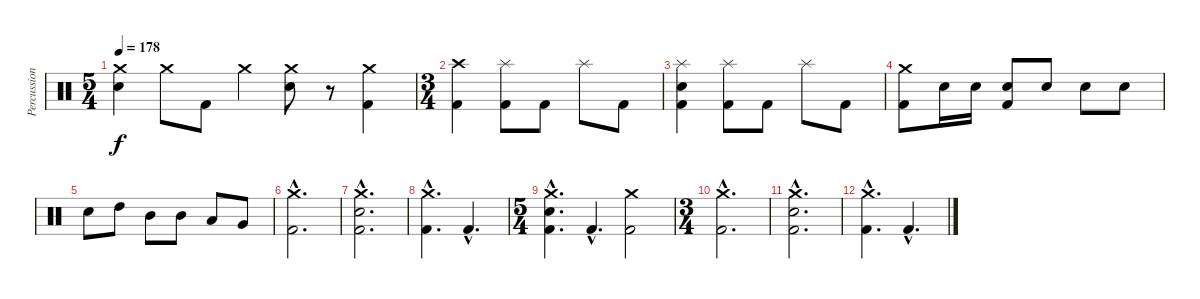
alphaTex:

\track ("Percussion" "Percussion") {instrument percussion}
\staff {score}
\articulation defaults
\ts (5 4)
\tempo 178
\clef neutral
\ks c
("Crash medium (hit)" "Electric Snare (hit)").4{dy f} "Crash medium (hit)".8 "Kick (hit) 2".8 "Crash medium (hit)".4 ("Crash medium (hit)" "Electric Snare (hit)").8 r.8 ("Crash medium (hit)" "Kick (hit) 2").4 |
\ts (3 4)
("Crash high (hit)" "Kick (hit) 2").4 ("Splash (hit)" "Kick (hit) 2").8 "Kick (hit) 2".8 "Splash (hit)".8 "Kick (hit) 2".8 |
("Splash (hit)" "Electric Snare (hit)" "Kick (hit) 2").4 ("Splash (hit)" "Kick (hit) 2").8 "Kick (hit) 2".8 "Splash (hit)".8 "Kick (hit) 2".8 |
("Crash medium (hit)" "Kick (hit) 2").8 "Electric Snare (hit)".16 "Electric Snare (hit)".16 ("Electric Snare (hit)" "Kick (hit) 2").8 "Electric Snare (hit)".8 "Electric Snare (hit)".8 "Electric Snare (hit)".8 |
"Electric Snare (hit)".8 "High Tom (hit)".8 "Mid Tom (hit)".8 "Mid Tom (hit)".8 "Low Tom (hit)".8 "Very Low Tom (hit)".8 |
("Crash medium (hit)"{hac} "Kick (hit) 2"{hac}).2{d} |
("Crash medium (hit)"{hac} "Electric Snare (hit)"{hac} "Kick (hit) 2"{hac}).2{d} |
("Crash medium (hit)"{hac} "Kick (hit) 2"{hac}).4{d} "Kick (hit) 2"{hac}.4{d} |
\ts (5 4)
("Crash medium (hit)"{hac} "Electric Snare (hit)"{hac} "Kick (hit) 2"{hac}).4{d} "Kick (hit) 2"{hac}.4{d} ("Crash medium (hit)" "Kick (hit) 2").2 |
\ts (3 4)
("Crash medium (hit)"{hac} "Kick (hit) 2"{hac}).2{d} |
("Crash medium (hit)"{hac} "Electric Snare (hit)"{hac} "Kick (hit) 2"{hac}).2{d} |
("Crash medium (hit)"{hac} "Kick (hit) 2"{hac}).4{d} "Kick (hit) 2"{hac}.4{d}
